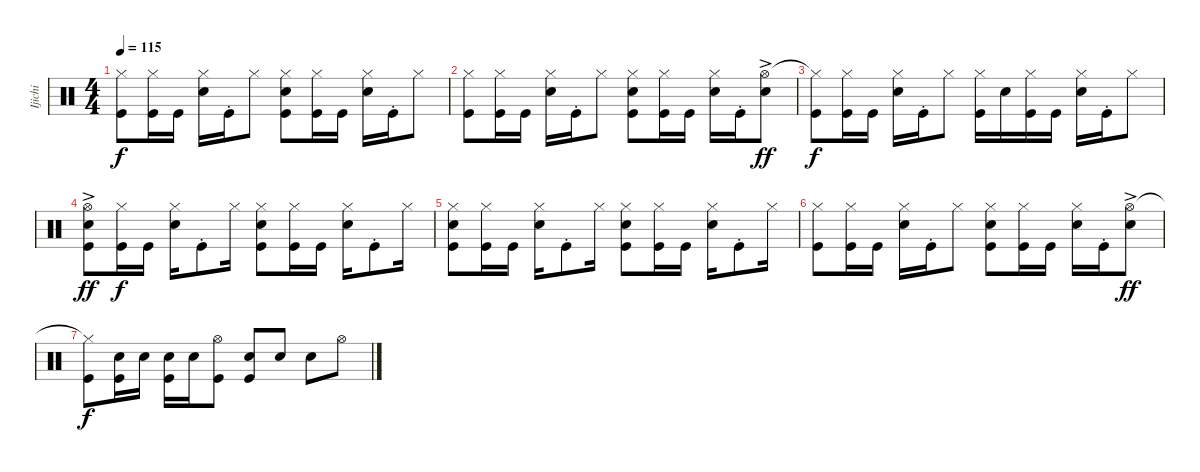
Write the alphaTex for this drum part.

\track ("Ijichi" "Ijichi") {instrument percussion}
\staff {score}
\articulation defaults
\ts (4 4)
\tempo 115
\clef neutral
\ks c
("Hi-Hat (closed)" "Kick (hit)").8{dy f} ("Hi-Hat (closed)" "Kick (hit)").16 "Kick (hit)".16 ("Hi-Hat (closed)" "Snare (hit) 2").16 "Kick (hit)"{st}.16 "Hi-Hat (closed)".8 ("Hi-Hat (closed)" "Snare (hit) 2" "Kick (hit)").8 ("Hi-Hat (closed)" "Kick (hit)").16 "Kick (hit)".16 ("Hi-Hat (closed)" "Snare (hit) 2").16 "Kick (hit)"{st}.16 "Hi-Hat (closed)".8 |
("Hi-Hat (closed)" "Kick (hit)").8 ("Hi-Hat (closed)" "Kick (hit)").16 "Kick (hit)".16 ("Hi-Hat (closed)" "Snare (hit) 2").16 "Kick (hit)"{st}.16 "Hi-Hat (closed)".8 ("Hi-Hat (closed)" "Snare (hit) 2" "Kick (hit)").8 ("Hi-Hat (closed)" "Kick (hit)").16 "Kick (hit)".16 ("Hi-Hat (closed)" "Snare (hit) 2").16 "Kick (hit)"{st}.16 ("Hi-Hat (open)"{ac} "Snare (hit) 2").8{dy ff} |
("Hi-Hat (closed)"{t} "Kick (hit)").8{dy f} ("Hi-Hat (closed)" "Kick (hit)").16 "Kick (hit)".16 ("Hi-Hat (closed)" "Snare (hit) 2").16 "Kick (hit)"{st}.16 "Hi-Hat (closed)".8 ("Hi-Hat (closed)" "Kick (hit)").16 "Snare (hit) 2".16 ("Hi-Hat (closed)" "Kick (hit)").16 "Kick (hit)".16 ("Hi-Hat (closed)" "Snare (hit) 2").16 "Kick (hit)"{st}.16 "Hi-Hat (closed)".8 |
("Hi-Hat (open)"{ac} "Snare (hit) 2" "Kick (hit)").8{dy ff} ("Hi-Hat (closed)" "Kick (hit)").16{dy f} "Kick (hit)".16 ("Hi-Hat (closed)" "Snare (hit) 2").16 "Kick (hit)"{st}.8 "Hi-Hat (closed)".16 ("Hi-Hat (closed)" "Snare (hit) 2" "Kick (hit)").8 ("Hi-Hat (closed)" "Kick (hit)").16 "Kick (hit)".16 ("Hi-Hat (closed)" "Snare (hit) 2").16 "Kick (hit)"{st}.8 "Hi-Hat (closed)".16 |
("Hi-Hat (closed)" "Snare (hit) 2" "Kick (hit)").8 ("Hi-Hat (closed)" "Kick (hit)").16 "Kick (hit)".16 ("Hi-Hat (closed)" "Snare (hit) 2").16 "Kick (hit)"{st}.8 "Hi-Hat (closed)".16 ("Hi-Hat (closed)" "Snare (hit) 2" "Kick (hit)").8 ("Hi-Hat (closed)" "Kick (hit)").16 "Kick (hit)".16 ("Hi-Hat (closed)" "Snare (hit) 2").16 "Kick (hit)"{st}.8 "Hi-Hat (closed)".16 |
("Hi-Hat (closed)" "Kick (hit)").8 ("Hi-Hat (closed)" "Kick (hit)").16 "Kick (hit)".16 ("Hi-Hat (closed)" "Snare (hit) 2").16 "Kick (hit)"{st}.16 "Hi-Hat (closed)".8 ("Hi-Hat (closed)" "Snare (hit) 2" "Kick (hit)").8 ("Hi-Hat (closed)" "Kick (hit)").16 "Kick (hit)".16 ("Hi-Hat (closed)" "Snare (hit) 2").16 "Kick (hit)"{st}.16 ("Hi-Hat (open)"{ac} "Snare (hit) 2").8{dy ff} |
("Hi-Hat (closed)"{t} "Kick (hit)").8{dy f} ("Snare (hit) 2" "Kick (hit)").16 "Snare (hit) 2".16 ("Snare (hit) 2" "Kick (hit)").16 "Snare (hit) 2".16 ("Hi-Hat (open)" "Kick (hit)").8 ("Snare (hit) 2" "Kick (hit)").8 "Snare (hit) 2".8 "Snare (hit) 2".8 "Hi-Hat (open)".8
